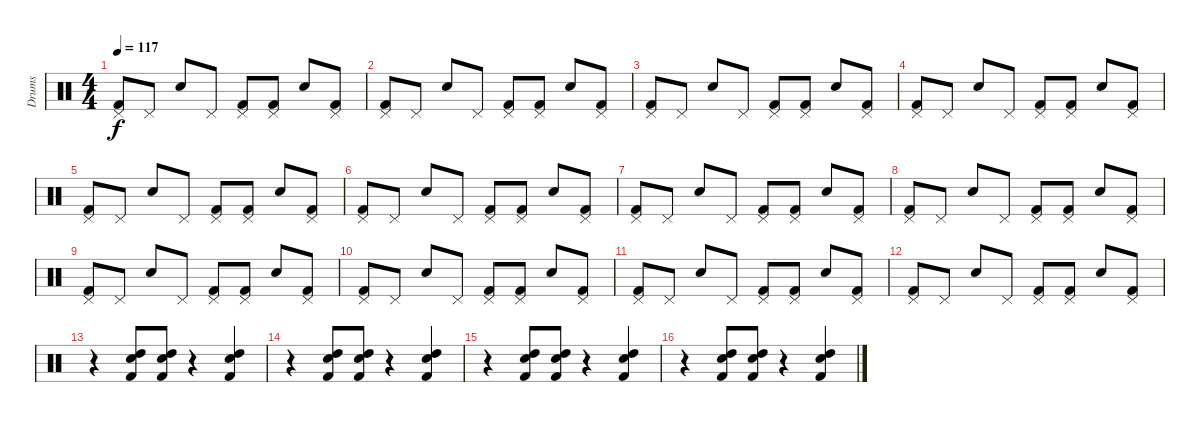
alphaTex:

\track ("Drums" "Drums") {instrument percussion}
\staff {score}
\articulation defaults
\ts (4 4)
\tempo 117
\clef neutral
\ks c
("Pedal Hi-Hat (hit)" "Kick (hit) 2").8{dy f} "Pedal Hi-Hat (hit)".8 "Snare (hit) 2".8 "Pedal Hi-Hat (hit)".8 ("Pedal Hi-Hat (hit)" "Kick (hit) 2").8 ("Pedal Hi-Hat (hit)" "Kick (hit) 2").8 "Snare (hit) 2".8 ("Pedal Hi-Hat (hit)" "Kick (hit) 2").8 |
("Pedal Hi-Hat (hit)" "Kick (hit) 2").8 "Pedal Hi-Hat (hit)".8 "Snare (hit) 2".8 "Pedal Hi-Hat (hit)".8 ("Pedal Hi-Hat (hit)" "Kick (hit) 2").8 ("Pedal Hi-Hat (hit)" "Kick (hit) 2").8 "Snare (hit) 2".8 ("Pedal Hi-Hat (hit)" "Kick (hit) 2").8 |
("Pedal Hi-Hat (hit)" "Kick (hit) 2").8 "Pedal Hi-Hat (hit)".8 "Snare (hit) 2".8 "Pedal Hi-Hat (hit)".8 ("Pedal Hi-Hat (hit)" "Kick (hit) 2").8 ("Pedal Hi-Hat (hit)" "Kick (hit) 2").8 "Snare (hit) 2".8 ("Pedal Hi-Hat (hit)" "Kick (hit) 2").8 |
("Pedal Hi-Hat (hit)" "Kick (hit) 2").8 "Pedal Hi-Hat (hit)".8 "Snare (hit) 2".8 "Pedal Hi-Hat (hit)".8 ("Pedal Hi-Hat (hit)" "Kick (hit) 2").8 ("Pedal Hi-Hat (hit)" "Kick (hit) 2").8 "Snare (hit) 2".8 ("Pedal Hi-Hat (hit)" "Kick (hit) 2").8 |
("Pedal Hi-Hat (hit)" "Kick (hit) 2").8 "Pedal Hi-Hat (hit)".8 "Snare (hit) 2".8 "Pedal Hi-Hat (hit)".8 ("Pedal Hi-Hat (hit)" "Kick (hit) 2").8 ("Pedal Hi-Hat (hit)" "Kick (hit) 2").8 "Snare (hit) 2".8 ("Pedal Hi-Hat (hit)" "Kick (hit) 2").8 |
("Pedal Hi-Hat (hit)" "Kick (hit) 2").8 "Pedal Hi-Hat (hit)".8 "Snare (hit) 2".8 "Pedal Hi-Hat (hit)".8 ("Pedal Hi-Hat (hit)" "Kick (hit) 2").8 ("Pedal Hi-Hat (hit)" "Kick (hit) 2").8 "Snare (hit) 2".8 ("Pedal Hi-Hat (hit)" "Kick (hit) 2").8 |
("Pedal Hi-Hat (hit)" "Kick (hit) 2").8 "Pedal Hi-Hat (hit)".8 "Snare (hit) 2".8 "Pedal Hi-Hat (hit)".8 ("Pedal Hi-Hat (hit)" "Kick (hit) 2").8 ("Pedal Hi-Hat (hit)" "Kick (hit) 2").8 "Snare (hit) 2".8 ("Pedal Hi-Hat (hit)" "Kick (hit) 2").8 |
("Pedal Hi-Hat (hit)" "Kick (hit) 2").8 "Pedal Hi-Hat (hit)".8 "Snare (hit) 2".8 "Pedal Hi-Hat (hit)".8 ("Pedal Hi-Hat (hit)" "Kick (hit) 2").8 ("Pedal Hi-Hat (hit)" "Kick (hit) 2").8 "Snare (hit) 2".8 ("Pedal Hi-Hat (hit)" "Kick (hit) 2").8 |
("Pedal Hi-Hat (hit)" "Kick (hit) 2").8 "Pedal Hi-Hat (hit)".8 "Snare (hit) 2".8 "Pedal Hi-Hat (hit)".8 ("Pedal Hi-Hat (hit)" "Kick (hit) 2").8 ("Pedal Hi-Hat (hit)" "Kick (hit) 2").8 "Snare (hit) 2".8 ("Pedal Hi-Hat (hit)" "Kick (hit) 2").8 |
("Pedal Hi-Hat (hit)" "Kick (hit) 2").8 "Pedal Hi-Hat (hit)".8 "Snare (hit) 2".8 "Pedal Hi-Hat (hit)".8 ("Pedal Hi-Hat (hit)" "Kick (hit) 2").8 ("Pedal Hi-Hat (hit)" "Kick (hit) 2").8 "Snare (hit) 2".8 ("Pedal Hi-Hat (hit)" "Kick (hit) 2").8 |
("Pedal Hi-Hat (hit)" "Kick (hit) 2").8 "Pedal Hi-Hat (hit)".8 "Snare (hit) 2".8 "Pedal Hi-Hat (hit)".8 ("Pedal Hi-Hat (hit)" "Kick (hit) 2").8 ("Pedal Hi-Hat (hit)" "Kick (hit) 2").8 "Snare (hit) 2".8 ("Pedal Hi-Hat (hit)" "Kick (hit) 2").8 |
("Pedal Hi-Hat (hit)" "Kick (hit) 2").8 "Pedal Hi-Hat (hit)".8 "Snare (hit) 2".8 "Pedal Hi-Hat (hit)".8 ("Pedal Hi-Hat (hit)" "Kick (hit) 2").8 ("Pedal Hi-Hat (hit)" "Kick (hit) 2").8 "Snare (hit) 2".8 ("Pedal Hi-Hat (hit)" "Kick (hit) 2").8 |
r.4 ("High Tom (hit)" "Snare (hit) 2" "Kick (hit) 2").8 ("High Tom (hit)" "Snare (hit) 2" "Kick (hit) 2").8 r.4 ("High Tom (hit)" "Snare (hit) 2" "Kick (hit) 2").4 |
r.4 ("High Tom (hit)" "Snare (hit) 2" "Kick (hit) 2").8 ("High Tom (hit)" "Snare (hit) 2" "Kick (hit) 2").8 r.4 ("High Tom (hit)" "Snare (hit) 2" "Kick (hit) 2").4 |
r.4 ("High Tom (hit)" "Snare (hit) 2" "Kick (hit) 2").8 ("High Tom (hit)" "Snare (hit) 2" "Kick (hit) 2").8 r.4 ("High Tom (hit)" "Snare (hit) 2" "Kick (hit) 2").4 |
r.4 ("High Tom (hit)" "Snare (hit) 2" "Kick (hit) 2").8 ("High Tom (hit)" "Snare (hit) 2" "Kick (hit) 2").8 r.4 ("High Tom (hit)" "Snare (hit) 2" "Kick (hit) 2").4
